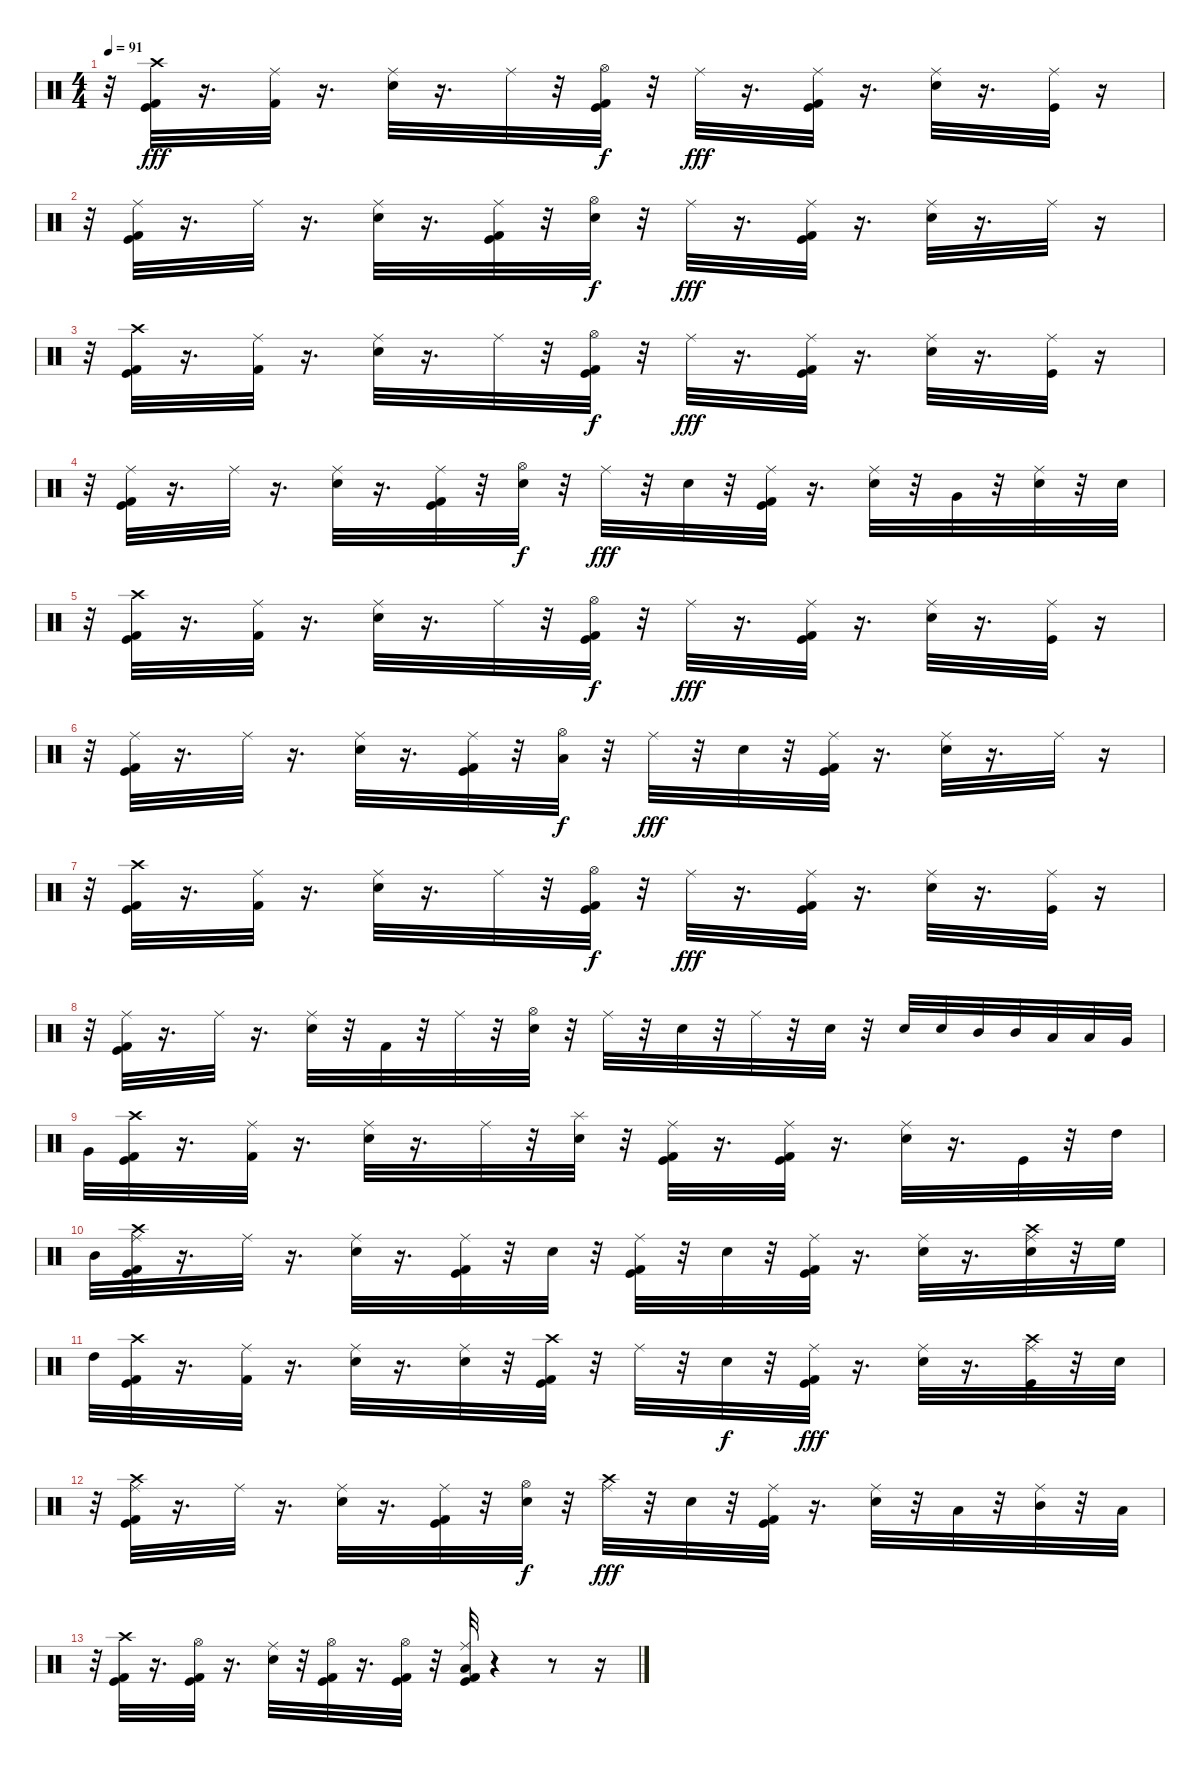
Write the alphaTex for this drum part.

\track "" {instrument percussion}
\staff {score}
\articulation defaults
\ts (4 4)
\tempo 91
\clef neutral
\ks c
r.32{dy fff} ("Crash high (hit)" "Kick (hit) 2" "Kick (hit)").32 r.16{d} ("Kick (hit) 2" "Ride (middle)").32 r.16{d} ("Ride (middle)" "Snare (hit) 2").32 r.16{d} "Ride (middle)".32 r.32 ("Hi-Hat (open)" "Kick (hit) 2" "Kick (hit)").32{dy f} r.32 "Ride (middle)".32{dy fff} r.16{d} ("Ride (middle)" "Kick (hit)" "Kick (hit) 2").32 r.16{d} ("Ride (middle)" "Snare (hit) 2").32 r.16{d} ("Ride (middle)" "Kick (hit)").32 r.16 |
r.32 ("Ride (middle)" "Kick (hit)" "Kick (hit) 2").32 r.16{d} "Ride (middle)".32 r.16{d} ("Ride (middle)" "Snare (hit) 2").32 r.16{d} ("Ride (middle)" "Kick (hit)" "Kick (hit) 2").32 r.32 ("Hi-Hat (open)" "Snare (hit) 2").32{dy f} r.32 "Ride (middle)".32{dy fff} r.16{d} ("Ride (middle)" "Kick (hit)" "Kick (hit) 2").32 r.16{d} ("Ride (middle)" "Snare (hit) 2").32 r.16{d} "Ride (middle)".32 r.16 |
r.32 ("Crash high (hit)" "Kick (hit) 2" "Kick (hit)").32 r.16{d} ("Kick (hit) 2" "Ride (middle)").32 r.16{d} ("Ride (middle)" "Snare (hit) 2").32 r.16{d} "Ride (middle)".32 r.32 ("Hi-Hat (open)" "Kick (hit) 2" "Kick (hit)").32{dy f} r.32 "Ride (middle)".32{dy fff} r.16{d} ("Ride (middle)" "Kick (hit)" "Kick (hit) 2").32 r.16{d} ("Ride (middle)" "Snare (hit) 2").32 r.16{d} ("Ride (middle)" "Kick (hit)").32 r.16 |
r.32 ("Ride (middle)" "Kick (hit)" "Kick (hit) 2").32 r.16{d} "Ride (middle)".32 r.16{d} ("Ride (middle)" "Snare (hit) 2").32 r.16{d} ("Ride (middle)" "Kick (hit)" "Kick (hit) 2").32 r.32 ("Hi-Hat (open)" "Snare (hit) 2").32{dy f} r.32 "Ride (middle)".32{dy fff} r.32 "Snare (hit) 2".32 r.32 ("Ride (middle)" "Kick (hit)" "Kick (hit) 2").32 r.16{d} ("Ride (middle)" "Snare (hit) 2").32 r.32 "Very Low Tom (hit)".32 r.32 ("Snare (hit) 2" "Ride (middle)").32 r.32 "Snare (hit) 2".32 |
r.32 ("Crash high (hit)" "Kick (hit) 2" "Kick (hit)").32 r.16{d} ("Kick (hit) 2" "Ride (middle)").32 r.16{d} ("Ride (middle)" "Snare (hit) 2").32 r.16{d} "Ride (middle)".32 r.32 ("Hi-Hat (open)" "Kick (hit) 2" "Kick (hit)").32{dy f} r.32 "Ride (middle)".32{dy fff} r.16{d} ("Ride (middle)" "Kick (hit)" "Kick (hit) 2").32 r.16{d} ("Ride (middle)" "Snare (hit) 2").32 r.16{d} ("Ride (middle)" "Kick (hit)").32 r.16 |
r.32 ("Ride (middle)" "Kick (hit)" "Kick (hit) 2").32 r.16{d} "Ride (middle)".32 r.16{d} ("Ride (middle)" "Snare (hit) 2").32 r.16{d} ("Ride (middle)" "Kick (hit)" "Kick (hit) 2").32 r.32 ("Hi-Hat (open)" "Low Floor Tom (hit)").32{dy f} r.32 "Ride (middle)".32{dy fff} r.32 "Snare (hit) 2".32 r.32 ("Ride (middle)" "Kick (hit)" "Kick (hit) 2").32 r.16{d} ("Ride (middle)" "Snare (hit) 2").32 r.16{d} "Ride (middle)".32 r.16 |
r.32 ("Crash high (hit)" "Kick (hit) 2" "Kick (hit)").32 r.16{d} ("Kick (hit) 2" "Ride (middle)").32 r.16{d} ("Ride (middle)" "Snare (hit) 2").32 r.16{d} "Ride (middle)".32 r.32 ("Hi-Hat (open)" "Kick (hit) 2" "Kick (hit)").32{dy f} r.32 "Ride (middle)".32{dy fff} r.16{d} ("Ride (middle)" "Kick (hit)" "Kick (hit) 2").32 r.16{d} ("Ride (middle)" "Snare (hit) 2").32 r.16{d} ("Ride (middle)" "Kick (hit)").32 r.16 |
r.32 ("Ride (middle)" "Kick (hit)" "Kick (hit) 2").32 r.16{d} "Ride (middle)".32 r.16{d} ("Ride (middle)" "Snare (hit) 2").32 r.32 "Kick (hit) 2".32 r.32 "Ride (middle)".32 r.32 ("Snare (hit) 2" "Hi-Hat (open)").32 r.32 "Ride (middle)".32 r.32 "Snare (hit) 2".32 r.32 "Ride (middle)".32 r.32 "Snare (hit) 2".32 r.32 "Snare (hit) 2".32 "Snare (hit) 2".32 "Mid Tom (hit)".32 "Mid Tom (hit)".32 "Low Tom (hit)".32 "Low Tom (hit)".32 "Very Low Tom (hit)".32 |
"Very Low Tom (hit)".32 ("Crash high (hit)" "Kick (hit) 2" "Kick (hit)").32 r.16{d} ("Kick (hit) 2" "Ride (middle)").32 r.16{d} ("Ride (middle)" "Snare (hit) 2").32 r.16{d} "Ride (middle)".32 r.32 ("Snare (hit) 2" "Splash (hit)").32 r.32 ("Ride (middle)" "Kick (hit) 2" "Kick (hit)").32 r.16{d} ("Ride (middle)" "Kick (hit)" "Kick (hit) 2").32 r.16{d} ("Ride (middle)" "Snare (hit) 2").32 r.16{d} "Kick (hit)".32 r.32 "High Tom (hit)".32 |
"Mid Tom (hit)".32 ("Crash high (hit)" "Ride (middle)" "Kick (hit)" "Kick (hit) 2").32 r.16{d} "Ride (middle)".32 r.16{d} ("Ride (middle)" "Snare (hit) 2").32 r.16{d} ("Ride (middle)" "Kick (hit)" "Kick (hit) 2").32 r.32 "Snare (hit) 2".32 r.32 ("Kick (hit)" "Kick (hit) 2" "Ride (middle)").32 r.32 "Snare (hit) 2".32 r.32 ("Ride (middle)" "Kick (hit)" "Kick (hit) 2").32 r.16{d} ("Ride (middle)" "Snare (hit) 2").32 r.16{d} ("Snare (hit) 2" "Ride (middle)" "Crash high (hit)").32 r.32 "High Floor Tom (hit)".32 |
"High Tom (hit)".32 ("Crash high (hit)" "Kick (hit) 2" "Kick (hit)").32 r.16{d} ("Kick (hit) 2" "Ride (middle)").32 r.16{d} ("Ride (middle)" "Snare (hit) 2").32 r.16{d} ("Ride (middle)" "Snare (hit) 2").32 r.32 ("Crash high (hit)" "Kick (hit) 2" "Kick (hit)").32 r.32 "Ride (middle)".32 r.32 "Snare (hit) 2".32{dy f} r.32 ("Ride (middle)" "Kick (hit)" "Kick (hit) 2").32{dy fff} r.16{d} ("Ride (middle)" "Snare (hit) 2").32 r.16{d} ("Crash high (hit)" "Ride (middle)" "Kick (hit)").32 r.32 "Snare (hit) 2".32 |
r.32 ("Crash high (hit)" "Ride (middle)" "Kick (hit)" "Kick (hit) 2").32 r.16{d} "Ride (middle)".32 r.16{d} ("Ride (middle)" "Snare (hit) 2").32 r.16{d} ("Ride (middle)" "Kick (hit)" "Kick (hit) 2").32 r.32 ("Hi-Hat (open)" "Snare (hit) 2").32{dy f} r.32 ("Crash high (hit)" "Ride (middle)").32{dy fff} r.32 "Snare (hit) 2".32 r.32 ("Ride (middle)" "Kick (hit)" "Kick (hit) 2").32 r.16{d} ("Ride (middle)" "Snare (hit) 2").32 r.32 "Low Floor Tom (hit)".32 r.32 ("Mid Tom (hit)" "Ride (middle)").32 r.32 "Low Tom (hit)".32 |
r.32 ("Crash high (hit)" "Kick (hit)" "Kick (hit) 2").32 r.16{d} ("Hi-Hat (open)" "Kick (hit)" "Kick (hit) 2").32 r.16{d} ("Ride (middle)" "Snare (hit) 2").32 r.32 ("Kick (hit)" "Hi-Hat (open)" "Kick (hit) 2").32 r.16{d} ("Hi-Hat (open)" "Kick (hit)" "Kick (hit) 2").32 r.32 ("Ride (middle)" "Low Floor Tom (hit)" "Kick (hit)" "Kick (hit) 2").32 r.4 r.8 r.16
